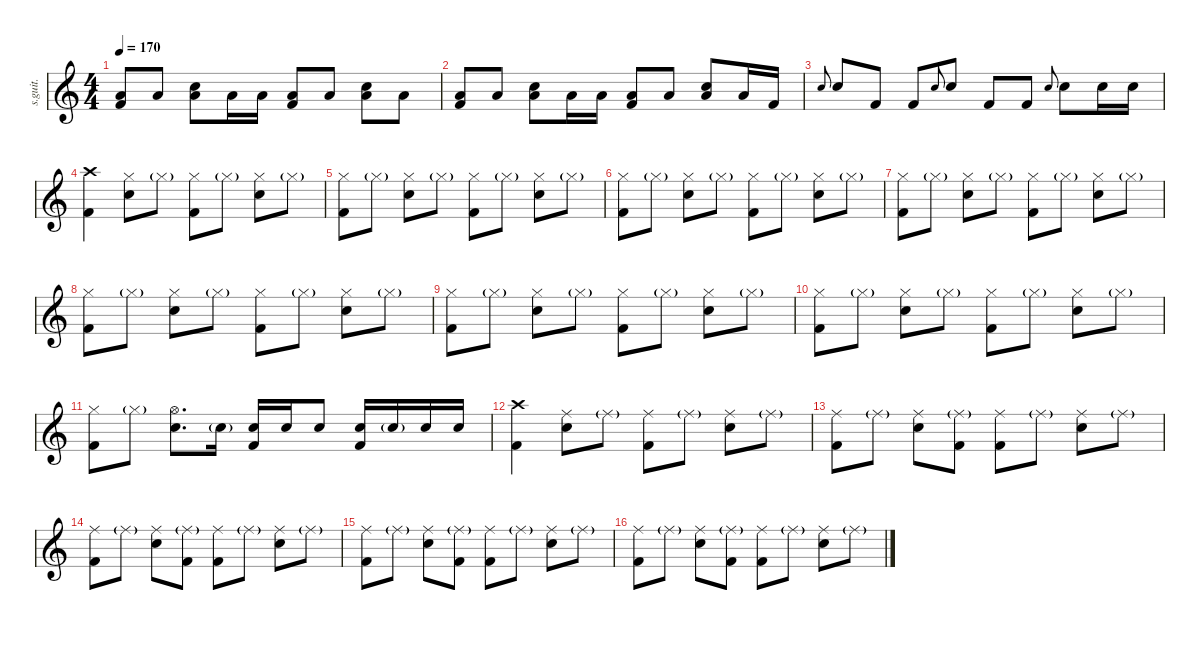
\defaultSystemsLayout 4
\hideDynamics
\bracketExtendMode nobrackets
\track ("Drumkit" "s.guit.") {instrument percussion}
\staff {score}
\articulation defaults
\ts (4 4)
\tempo 170
\clef g2
\ks c
("Low Floor Tom (hit)" "Kick (hit) 2").8{lyrics (0 "") lyrics (1 "") lyrics (2 "") lyrics (3 "") lyrics (4 "") dy ff} "Low Floor Tom (hit)".8{lyrics (0 "") lyrics (1 "") lyrics (2 "") lyrics (3 "") lyrics (4 "")} ("Snare (hit) 2" "Low Floor Tom (hit)").8{lyrics (0 "") lyrics (1 "") lyrics (2 "") lyrics (3 "") lyrics (4 "")} "Low Floor Tom (hit)".16{lyrics (0 "") lyrics (1 "") lyrics (2 "") lyrics (3 "") lyrics (4 "")} "Low Floor Tom (hit)".16{lyrics (0 "") lyrics (1 "") lyrics (2 "") lyrics (3 "") lyrics (4 "")} ("Low Floor Tom (hit)" "Kick (hit) 2").8{lyrics (0 "") lyrics (1 "") lyrics (2 "") lyrics (3 "") lyrics (4 "")} "Low Floor Tom (hit)".8{lyrics (0 "") lyrics (1 "") lyrics (2 "") lyrics (3 "") lyrics (4 "")} ("Snare (hit) 2" "Low Floor Tom (hit)").8{lyrics (0 "") lyrics (1 "") lyrics (2 "") lyrics (3 "") lyrics (4 "")} "Low Floor Tom (hit)".8{lyrics (0 "") lyrics (1 "") lyrics (2 "") lyrics (3 "") lyrics (4 "")} |
("Low Floor Tom (hit)" "Kick (hit) 2").8{lyrics (0 "") lyrics (1 "") lyrics (2 "") lyrics (3 "") lyrics (4 "")} "Low Floor Tom (hit)".8{lyrics (0 "") lyrics (1 "") lyrics (2 "") lyrics (3 "") lyrics (4 "")} ("Snare (hit) 2" "Low Floor Tom (hit)").8{lyrics (0 "") lyrics (1 "") lyrics (2 "") lyrics (3 "") lyrics (4 "")} "Low Floor Tom (hit)".16{lyrics (0 "") lyrics (1 "") lyrics (2 "") lyrics (3 "") lyrics (4 "")} "Low Floor Tom (hit)".16{lyrics (0 "") lyrics (1 "") lyrics (2 "") lyrics (3 "") lyrics (4 "")} ("Low Floor Tom (hit)" "Kick (hit) 2").8{lyrics (0 "") lyrics (1 "") lyrics (2 "") lyrics (3 "") lyrics (4 "")} "Low Floor Tom (hit)".8{lyrics (0 "") lyrics (1 "") lyrics (2 "") lyrics (3 "") lyrics (4 "")} ("Snare (hit) 2" "Low Floor Tom (hit)").8{lyrics (0 "") lyrics (1 "") lyrics (2 "") lyrics (3 "") lyrics (4 "")} "Low Floor Tom (hit)".16{lyrics (0 "") lyrics (1 "") lyrics (2 "") lyrics (3 "") lyrics (4 "")} "Kick (hit) 2".16{lyrics (0 "") lyrics (1 "") lyrics (2 "") lyrics (3 "") lyrics (4 "")} |
"Snare (hit) 2".8{lyrics (0 "") lyrics (1 "") lyrics (2 "") lyrics (3 "") lyrics (4 "") gr onbeat} "Snare (hit) 2".8{lyrics (0 "") lyrics (1 "") lyrics (2 "") lyrics (3 "") lyrics (4 "")} "Kick (hit) 2".8{lyrics (0 "") lyrics (1 "") lyrics (2 "") lyrics (3 "") lyrics (4 "")} "Kick (hit) 2".8{lyrics (0 "") lyrics (1 "") lyrics (2 "") lyrics (3 "") lyrics (4 "")} "Snare (hit) 2".8{lyrics (0 "") lyrics (1 "") lyrics (2 "") lyrics (3 "") lyrics (4 "") gr onbeat} "Snare (hit) 2".8{lyrics (0 "") lyrics (1 "") lyrics (2 "") lyrics (3 "") lyrics (4 "")} "Kick (hit) 2".8{lyrics (0 "") lyrics (1 "") lyrics (2 "") lyrics (3 "") lyrics (4 "")} "Kick (hit) 2".8{lyrics (0 "") lyrics (1 "") lyrics (2 "") lyrics (3 "") lyrics (4 "")} "Snare (hit) 2".8{lyrics (0 "") lyrics (1 "") lyrics (2 "") lyrics (3 "") lyrics (4 "") gr onbeat} "Snare (hit) 2".8{lyrics (0 "") lyrics (1 "") lyrics (2 "") lyrics (3 "") lyrics (4 "")} "Snare (hit) 2".16{lyrics (0 "") lyrics (1 "") lyrics (2 "") lyrics (3 "") lyrics (4 "")} "Snare (hit) 2".16{lyrics (0 "") lyrics (1 "") lyrics (2 "") lyrics (3 "") lyrics (4 "")} |
("Crash high (hit)" "Kick (hit) 2").4{lyrics (0 "") lyrics (1 "") lyrics (2 "") lyrics (3 "") lyrics (4 "")} ("Hi-Hat (closed)" "Snare (hit) 2").8{lyrics (0 "") lyrics (1 "") lyrics (2 "") lyrics (3 "") lyrics (4 "")} "Hi-Hat (closed)"{g}.8{lyrics (0 "") lyrics (1 "") lyrics (2 "") lyrics (3 "") lyrics (4 "")} ("Hi-Hat (closed)" "Kick (hit) 2").8{lyrics (0 "") lyrics (1 "") lyrics (2 "") lyrics (3 "") lyrics (4 "")} "Hi-Hat (closed)"{g}.8{lyrics (0 "") lyrics (1 "") lyrics (2 "") lyrics (3 "") lyrics (4 "")} ("Hi-Hat (closed)" "Snare (hit) 2").8{lyrics (0 "") lyrics (1 "") lyrics (2 "") lyrics (3 "") lyrics (4 "")} "Hi-Hat (closed)"{g}.8{lyrics (0 "") lyrics (1 "") lyrics (2 "") lyrics (3 "") lyrics (4 "")} |
("Hi-Hat (closed)" "Kick (hit) 2").8{lyrics (0 "") lyrics (1 "") lyrics (2 "") lyrics (3 "") lyrics (4 "")} "Hi-Hat (closed)"{g}.8{lyrics (0 "") lyrics (1 "") lyrics (2 "") lyrics (3 "") lyrics (4 "")} ("Hi-Hat (closed)" "Snare (hit) 2").8{lyrics (0 "") lyrics (1 "") lyrics (2 "") lyrics (3 "") lyrics (4 "")} "Hi-Hat (closed)"{g}.8{lyrics (0 "") lyrics (1 "") lyrics (2 "") lyrics (3 "") lyrics (4 "")} ("Hi-Hat (closed)" "Kick (hit) 2").8{lyrics (0 "") lyrics (1 "") lyrics (2 "") lyrics (3 "") lyrics (4 "")} "Hi-Hat (closed)"{g}.8{lyrics (0 "") lyrics (1 "") lyrics (2 "") lyrics (3 "") lyrics (4 "")} ("Hi-Hat (closed)" "Snare (hit) 2").8{lyrics (0 "") lyrics (1 "") lyrics (2 "") lyrics (3 "") lyrics (4 "")} "Hi-Hat (closed)"{g}.8{lyrics (0 "") lyrics (1 "") lyrics (2 "") lyrics (3 "") lyrics (4 "")} |
("Hi-Hat (closed)" "Kick (hit) 2").8{lyrics (0 "") lyrics (1 "") lyrics (2 "") lyrics (3 "") lyrics (4 "")} "Hi-Hat (closed)"{g}.8{lyrics (0 "") lyrics (1 "") lyrics (2 "") lyrics (3 "") lyrics (4 "")} ("Hi-Hat (closed)" "Snare (hit) 2").8{lyrics (0 "") lyrics (1 "") lyrics (2 "") lyrics (3 "") lyrics (4 "")} "Hi-Hat (closed)"{g}.8{lyrics (0 "") lyrics (1 "") lyrics (2 "") lyrics (3 "") lyrics (4 "")} ("Hi-Hat (closed)" "Kick (hit) 2").8{lyrics (0 "") lyrics (1 "") lyrics (2 "") lyrics (3 "") lyrics (4 "")} "Hi-Hat (closed)"{g}.8{lyrics (0 "") lyrics (1 "") lyrics (2 "") lyrics (3 "") lyrics (4 "")} ("Hi-Hat (closed)" "Snare (hit) 2").8{lyrics (0 "") lyrics (1 "") lyrics (2 "") lyrics (3 "") lyrics (4 "")} "Hi-Hat (closed)"{g}.8{lyrics (0 "") lyrics (1 "") lyrics (2 "") lyrics (3 "") lyrics (4 "")} |
("Hi-Hat (closed)" "Kick (hit) 2").8{lyrics (0 "") lyrics (1 "") lyrics (2 "") lyrics (3 "") lyrics (4 "")} "Hi-Hat (closed)"{g}.8{lyrics (0 "") lyrics (1 "") lyrics (2 "") lyrics (3 "") lyrics (4 "")} ("Hi-Hat (closed)" "Snare (hit) 2").8{lyrics (0 "") lyrics (1 "") lyrics (2 "") lyrics (3 "") lyrics (4 "")} "Hi-Hat (closed)"{g}.8{lyrics (0 "") lyrics (1 "") lyrics (2 "") lyrics (3 "") lyrics (4 "")} ("Hi-Hat (closed)" "Kick (hit) 2").8{lyrics (0 "") lyrics (1 "") lyrics (2 "") lyrics (3 "") lyrics (4 "")} "Hi-Hat (closed)"{g}.8{lyrics (0 "") lyrics (1 "") lyrics (2 "") lyrics (3 "") lyrics (4 "")} ("Hi-Hat (closed)" "Snare (hit) 2").8{lyrics (0 "") lyrics (1 "") lyrics (2 "") lyrics (3 "") lyrics (4 "")} "Hi-Hat (closed)"{g}.8{lyrics (0 "") lyrics (1 "") lyrics (2 "") lyrics (3 "") lyrics (4 "")} |
("Hi-Hat (closed)" "Kick (hit) 2").8{lyrics (0 "") lyrics (1 "") lyrics (2 "") lyrics (3 "") lyrics (4 "")} "Hi-Hat (closed)"{g}.8{lyrics (0 "") lyrics (1 "") lyrics (2 "") lyrics (3 "") lyrics (4 "")} ("Hi-Hat (closed)" "Snare (hit) 2").8{lyrics (0 "") lyrics (1 "") lyrics (2 "") lyrics (3 "") lyrics (4 "")} "Hi-Hat (closed)"{g}.8{lyrics (0 "") lyrics (1 "") lyrics (2 "") lyrics (3 "") lyrics (4 "")} ("Hi-Hat (closed)" "Kick (hit) 2").8{lyrics (0 "") lyrics (1 "") lyrics (2 "") lyrics (3 "") lyrics (4 "")} "Hi-Hat (closed)"{g}.8{lyrics (0 "") lyrics (1 "") lyrics (2 "") lyrics (3 "") lyrics (4 "")} ("Hi-Hat (closed)" "Snare (hit) 2").8{lyrics (0 "") lyrics (1 "") lyrics (2 "") lyrics (3 "") lyrics (4 "")} "Hi-Hat (closed)"{g}.8{lyrics (0 "") lyrics (1 "") lyrics (2 "") lyrics (3 "") lyrics (4 "")} |
("Hi-Hat (closed)" "Kick (hit) 2").8{lyrics (0 "") lyrics (1 "") lyrics (2 "") lyrics (3 "") lyrics (4 "")} "Hi-Hat (closed)"{g}.8{lyrics (0 "") lyrics (1 "") lyrics (2 "") lyrics (3 "") lyrics (4 "")} ("Hi-Hat (closed)" "Snare (hit) 2").8{lyrics (0 "") lyrics (1 "") lyrics (2 "") lyrics (3 "") lyrics (4 "")} "Hi-Hat (closed)"{g}.8{lyrics (0 "") lyrics (1 "") lyrics (2 "") lyrics (3 "") lyrics (4 "")} ("Hi-Hat (closed)" "Kick (hit) 2").8{lyrics (0 "") lyrics (1 "") lyrics (2 "") lyrics (3 "") lyrics (4 "")} "Hi-Hat (closed)"{g}.8{lyrics (0 "") lyrics (1 "") lyrics (2 "") lyrics (3 "") lyrics (4 "")} ("Hi-Hat (closed)" "Snare (hit) 2").8{lyrics (0 "") lyrics (1 "") lyrics (2 "") lyrics (3 "") lyrics (4 "")} "Hi-Hat (closed)"{g}.8{lyrics (0 "") lyrics (1 "") lyrics (2 "") lyrics (3 "") lyrics (4 "")} |
("Hi-Hat (closed)" "Kick (hit) 2").8{lyrics (0 "") lyrics (1 "") lyrics (2 "") lyrics (3 "") lyrics (4 "")} "Hi-Hat (closed)"{g}.8{lyrics (0 "") lyrics (1 "") lyrics (2 "") lyrics (3 "") lyrics (4 "")} ("Hi-Hat (closed)" "Snare (hit) 2").8{lyrics (0 "") lyrics (1 "") lyrics (2 "") lyrics (3 "") lyrics (4 "")} "Hi-Hat (closed)"{g}.8{lyrics (0 "") lyrics (1 "") lyrics (2 "") lyrics (3 "") lyrics (4 "")} ("Hi-Hat (closed)" "Kick (hit) 2").8{lyrics (0 "") lyrics (1 "") lyrics (2 "") lyrics (3 "") lyrics (4 "")} "Hi-Hat (closed)"{g}.8{lyrics (0 "") lyrics (1 "") lyrics (2 "") lyrics (3 "") lyrics (4 "")} ("Hi-Hat (closed)" "Snare (hit) 2").8{lyrics (0 "") lyrics (1 "") lyrics (2 "") lyrics (3 "") lyrics (4 "")} "Hi-Hat (closed)"{g}.8{lyrics (0 "") lyrics (1 "") lyrics (2 "") lyrics (3 "") lyrics (4 "")} |
("Hi-Hat (closed)" "Kick (hit) 2").8{lyrics (0 "") lyrics (1 "") lyrics (2 "") lyrics (3 "") lyrics (4 "")} "Hi-Hat (closed)"{g}.8{lyrics (0 "") lyrics (1 "") lyrics (2 "") lyrics (3 "") lyrics (4 "")} ("Snare (hit) 2" "Hi-Hat (open)").8{d lyrics (0 "") lyrics (1 "") lyrics (2 "") lyrics (3 "") lyrics (4 "")} "Snare (hit) 2"{g}.16{lyrics (0 "") lyrics (1 "") lyrics (2 "") lyrics (3 "") lyrics (4 "")} ("Snare (hit) 2" "Kick (hit) 2").16{lyrics (0 "") lyrics (1 "") lyrics (2 "") lyrics (3 "") lyrics (4 "")} "Snare (hit) 2".16{lyrics (0 "") lyrics (1 "") lyrics (2 "") lyrics (3 "") lyrics (4 "")} "Snare (hit) 2".8{lyrics (0 "") lyrics (1 "") lyrics (2 "") lyrics (3 "") lyrics (4 "")} ("Snare (hit) 2" "Kick (hit) 2").16{lyrics (0 "") lyrics (1 "") lyrics (2 "") lyrics (3 "") lyrics (4 "")} "Snare (hit) 2"{g}.16{lyrics (0 "") lyrics (1 "") lyrics (2 "") lyrics (3 "") lyrics (4 "")} "Snare (hit) 2".16{lyrics (0 "") lyrics (1 "") lyrics (2 "") lyrics (3 "") lyrics (4 "")} "Snare (hit) 2".16{lyrics (0 "") lyrics (1 "") lyrics (2 "") lyrics (3 "") lyrics (4 "")} |
("Crash high (hit)" "Kick (hit) 2").4{lyrics (0 "") lyrics (1 "") lyrics (2 "") lyrics (3 "") lyrics (4 "")} ("Ride (middle)" "Snare (hit) 2").8{lyrics (0 "") lyrics (1 "") lyrics (2 "") lyrics (3 "") lyrics (4 "")} "Ride (middle)"{g}.8{lyrics (0 "") lyrics (1 "") lyrics (2 "") lyrics (3 "") lyrics (4 "")} ("Ride (middle)" "Kick (hit) 2").8{lyrics (0 "") lyrics (1 "") lyrics (2 "") lyrics (3 "") lyrics (4 "")} "Ride (middle)"{g}.8{lyrics (0 "") lyrics (1 "") lyrics (2 "") lyrics (3 "") lyrics (4 "")} ("Ride (middle)" "Snare (hit) 2").8{lyrics (0 "") lyrics (1 "") lyrics (2 "") lyrics (3 "") lyrics (4 "")} "Ride (middle)"{g}.8{lyrics (0 "") lyrics (1 "") lyrics (2 "") lyrics (3 "") lyrics (4 "")} |
("Ride (middle)" "Kick (hit) 2").8{lyrics (0 "") lyrics (1 "") lyrics (2 "") lyrics (3 "") lyrics (4 "")} "Ride (middle)"{g}.8{lyrics (0 "") lyrics (1 "") lyrics (2 "") lyrics (3 "") lyrics (4 "")} ("Ride (middle)" "Snare (hit) 2").8{lyrics (0 "") lyrics (1 "") lyrics (2 "") lyrics (3 "") lyrics (4 "")} ("Ride (middle)"{g} "Kick (hit) 2").8{lyrics (0 "") lyrics (1 "") lyrics (2 "") lyrics (3 "") lyrics (4 "")} ("Ride (middle)" "Kick (hit) 2").8{lyrics (0 "") lyrics (1 "") lyrics (2 "") lyrics (3 "") lyrics (4 "")} "Ride (middle)"{g}.8{lyrics (0 "") lyrics (1 "") lyrics (2 "") lyrics (3 "") lyrics (4 "")} ("Ride (middle)" "Snare (hit) 2").8{lyrics (0 "") lyrics (1 "") lyrics (2 "") lyrics (3 "") lyrics (4 "")} "Ride (middle)"{g}.8{lyrics (0 "") lyrics (1 "") lyrics (2 "") lyrics (3 "") lyrics (4 "")} |
("Ride (middle)" "Kick (hit) 2").8{lyrics (0 "") lyrics (1 "") lyrics (2 "") lyrics (3 "") lyrics (4 "")} "Ride (middle)"{g}.8{lyrics (0 "") lyrics (1 "") lyrics (2 "") lyrics (3 "") lyrics (4 "")} ("Ride (middle)" "Snare (hit) 2").8{lyrics (0 "") lyrics (1 "") lyrics (2 "") lyrics (3 "") lyrics (4 "")} ("Ride (middle)"{g} "Kick (hit) 2").8{lyrics (0 "") lyrics (1 "") lyrics (2 "") lyrics (3 "") lyrics (4 "")} ("Ride (middle)" "Kick (hit) 2").8{lyrics (0 "") lyrics (1 "") lyrics (2 "") lyrics (3 "") lyrics (4 "")} "Ride (middle)"{g}.8{lyrics (0 "") lyrics (1 "") lyrics (2 "") lyrics (3 "") lyrics (4 "")} ("Ride (middle)" "Snare (hit) 2").8{lyrics (0 "") lyrics (1 "") lyrics (2 "") lyrics (3 "") lyrics (4 "")} "Ride (middle)"{g}.8{lyrics (0 "") lyrics (1 "") lyrics (2 "") lyrics (3 "") lyrics (4 "")} |
("Ride (middle)" "Kick (hit) 2").8{lyrics (0 "") lyrics (1 "") lyrics (2 "") lyrics (3 "") lyrics (4 "")} "Ride (middle)"{g}.8{lyrics (0 "") lyrics (1 "") lyrics (2 "") lyrics (3 "") lyrics (4 "")} ("Ride (middle)" "Snare (hit) 2").8{lyrics (0 "") lyrics (1 "") lyrics (2 "") lyrics (3 "") lyrics (4 "")} ("Ride (middle)"{g} "Kick (hit) 2").8{lyrics (0 "") lyrics (1 "") lyrics (2 "") lyrics (3 "") lyrics (4 "")} ("Ride (middle)" "Kick (hit) 2").8{lyrics (0 "") lyrics (1 "") lyrics (2 "") lyrics (3 "") lyrics (4 "")} "Ride (middle)"{g}.8{lyrics (0 "") lyrics (1 "") lyrics (2 "") lyrics (3 "") lyrics (4 "")} ("Ride (middle)" "Snare (hit) 2").8{lyrics (0 "") lyrics (1 "") lyrics (2 "") lyrics (3 "") lyrics (4 "")} "Ride (middle)"{g}.8{lyrics (0 "") lyrics (1 "") lyrics (2 "") lyrics (3 "") lyrics (4 "")} |
("Ride (middle)" "Kick (hit) 2").8{lyrics (0 "") lyrics (1 "") lyrics (2 "") lyrics (3 "") lyrics (4 "")} "Ride (middle)"{g}.8{lyrics (0 "") lyrics (1 "") lyrics (2 "") lyrics (3 "") lyrics (4 "")} ("Ride (middle)" "Snare (hit) 2").8{lyrics (0 "") lyrics (1 "") lyrics (2 "") lyrics (3 "") lyrics (4 "")} ("Ride (middle)"{g} "Kick (hit) 2").8{lyrics (0 "") lyrics (1 "") lyrics (2 "") lyrics (3 "") lyrics (4 "")} ("Ride (middle)" "Kick (hit) 2").8{lyrics (0 "") lyrics (1 "") lyrics (2 "") lyrics (3 "") lyrics (4 "")} "Ride (middle)"{g}.8{lyrics (0 "") lyrics (1 "") lyrics (2 "") lyrics (3 "") lyrics (4 "")} ("Ride (middle)" "Snare (hit) 2").8{lyrics (0 "") lyrics (1 "") lyrics (2 "") lyrics (3 "") lyrics (4 "")} "Ride (middle)"{g}.8{lyrics (0 "") lyrics (1 "") lyrics (2 "") lyrics (3 "") lyrics (4 "")}
